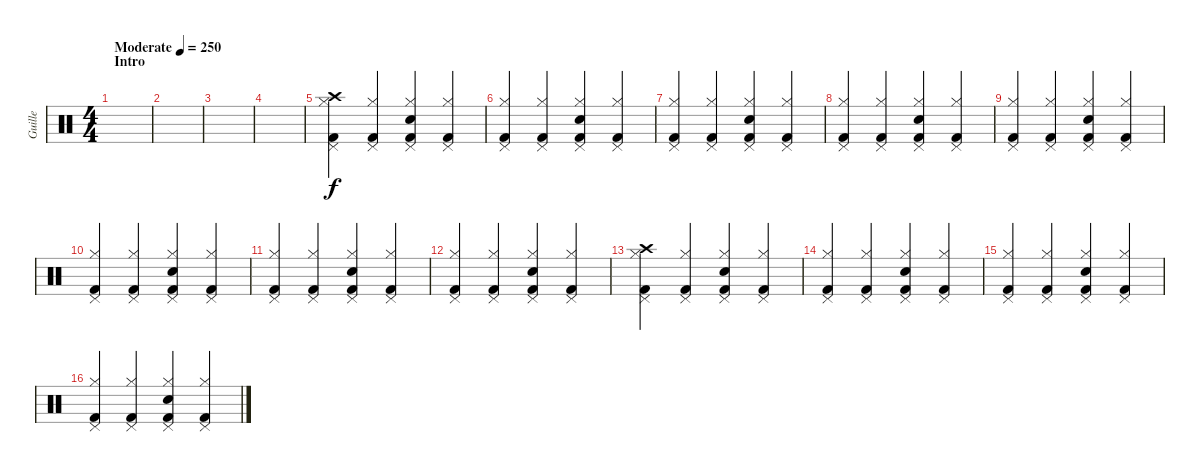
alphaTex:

\track ("Guille" "Guille") {instrument percussion}
\staff
\articulation defaults
\ts (4 4)
\section ("" "Intro")
\tempo (250 "Moderate")
\clef neutral
\ks c
|
|
|
|
("Kick (hit) 2" "Hi-Hat (closed)" "Pedal Hi-Hat (hit)" "Crash high (hit)").4 ("Kick (hit) 2" "Hi-Hat (closed)" "Pedal Hi-Hat (hit)").4 ("Kick (hit) 2" "Electric Snare (hit)" "Hi-Hat (closed)" "Pedal Hi-Hat (hit)").4 ("Kick (hit) 2" "Hi-Hat (closed)" "Pedal Hi-Hat (hit)").4 |
("Kick (hit) 2" "Hi-Hat (closed)" "Pedal Hi-Hat (hit)").4 ("Kick (hit) 2" "Hi-Hat (closed)" "Pedal Hi-Hat (hit)").4 ("Kick (hit) 2" "Electric Snare (hit)" "Hi-Hat (closed)" "Pedal Hi-Hat (hit)").4 ("Kick (hit) 2" "Hi-Hat (closed)" "Pedal Hi-Hat (hit)").4 |
("Kick (hit) 2" "Hi-Hat (closed)" "Pedal Hi-Hat (hit)").4 ("Kick (hit) 2" "Hi-Hat (closed)" "Pedal Hi-Hat (hit)").4 ("Kick (hit) 2" "Electric Snare (hit)" "Hi-Hat (closed)" "Pedal Hi-Hat (hit)").4 ("Kick (hit) 2" "Hi-Hat (closed)" "Pedal Hi-Hat (hit)").4 |
("Kick (hit) 2" "Hi-Hat (closed)" "Pedal Hi-Hat (hit)").4 ("Kick (hit) 2" "Hi-Hat (closed)" "Pedal Hi-Hat (hit)").4 ("Kick (hit) 2" "Electric Snare (hit)" "Hi-Hat (closed)" "Pedal Hi-Hat (hit)").4 ("Kick (hit) 2" "Hi-Hat (closed)" "Pedal Hi-Hat (hit)").4 |
("Kick (hit) 2" "Hi-Hat (closed)" "Pedal Hi-Hat (hit)").4 ("Kick (hit) 2" "Hi-Hat (closed)" "Pedal Hi-Hat (hit)").4 ("Kick (hit) 2" "Electric Snare (hit)" "Hi-Hat (closed)" "Pedal Hi-Hat (hit)").4 ("Kick (hit) 2" "Hi-Hat (closed)" "Pedal Hi-Hat (hit)").4 |
("Kick (hit) 2" "Hi-Hat (closed)" "Pedal Hi-Hat (hit)").4 ("Kick (hit) 2" "Hi-Hat (closed)" "Pedal Hi-Hat (hit)").4 ("Kick (hit) 2" "Electric Snare (hit)" "Hi-Hat (closed)" "Pedal Hi-Hat (hit)").4 ("Kick (hit) 2" "Hi-Hat (closed)" "Pedal Hi-Hat (hit)").4 |
("Kick (hit) 2" "Hi-Hat (closed)" "Pedal Hi-Hat (hit)").4 ("Kick (hit) 2" "Hi-Hat (closed)" "Pedal Hi-Hat (hit)").4 ("Kick (hit) 2" "Electric Snare (hit)" "Hi-Hat (closed)" "Pedal Hi-Hat (hit)").4 ("Kick (hit) 2" "Hi-Hat (closed)" "Pedal Hi-Hat (hit)").4 |
("Kick (hit) 2" "Hi-Hat (closed)" "Pedal Hi-Hat (hit)").4 ("Kick (hit) 2" "Hi-Hat (closed)" "Pedal Hi-Hat (hit)").4 ("Kick (hit) 2" "Electric Snare (hit)" "Hi-Hat (closed)" "Pedal Hi-Hat (hit)").4 ("Kick (hit) 2" "Hi-Hat (closed)" "Pedal Hi-Hat (hit)").4 |
("Kick (hit) 2" "Hi-Hat (closed)" "Pedal Hi-Hat (hit)" "Crash high (hit)").4 ("Kick (hit) 2" "Hi-Hat (closed)" "Pedal Hi-Hat (hit)").4 ("Kick (hit) 2" "Electric Snare (hit)" "Hi-Hat (closed)" "Pedal Hi-Hat (hit)").4 ("Kick (hit) 2" "Hi-Hat (closed)" "Pedal Hi-Hat (hit)").4 |
("Kick (hit) 2" "Hi-Hat (closed)" "Pedal Hi-Hat (hit)").4 ("Kick (hit) 2" "Hi-Hat (closed)" "Pedal Hi-Hat (hit)").4 ("Kick (hit) 2" "Electric Snare (hit)" "Hi-Hat (closed)" "Pedal Hi-Hat (hit)").4 ("Kick (hit) 2" "Hi-Hat (closed)" "Pedal Hi-Hat (hit)").4 |
("Kick (hit) 2" "Hi-Hat (closed)" "Pedal Hi-Hat (hit)").4 ("Kick (hit) 2" "Hi-Hat (closed)" "Pedal Hi-Hat (hit)").4 ("Kick (hit) 2" "Electric Snare (hit)" "Hi-Hat (closed)" "Pedal Hi-Hat (hit)").4 ("Kick (hit) 2" "Hi-Hat (closed)" "Pedal Hi-Hat (hit)").4 |
("Kick (hit) 2" "Hi-Hat (closed)" "Pedal Hi-Hat (hit)").4 ("Kick (hit) 2" "Hi-Hat (closed)" "Pedal Hi-Hat (hit)").4 ("Kick (hit) 2" "Electric Snare (hit)" "Hi-Hat (closed)" "Pedal Hi-Hat (hit)").4 ("Kick (hit) 2" "Hi-Hat (closed)" "Pedal Hi-Hat (hit)").4
